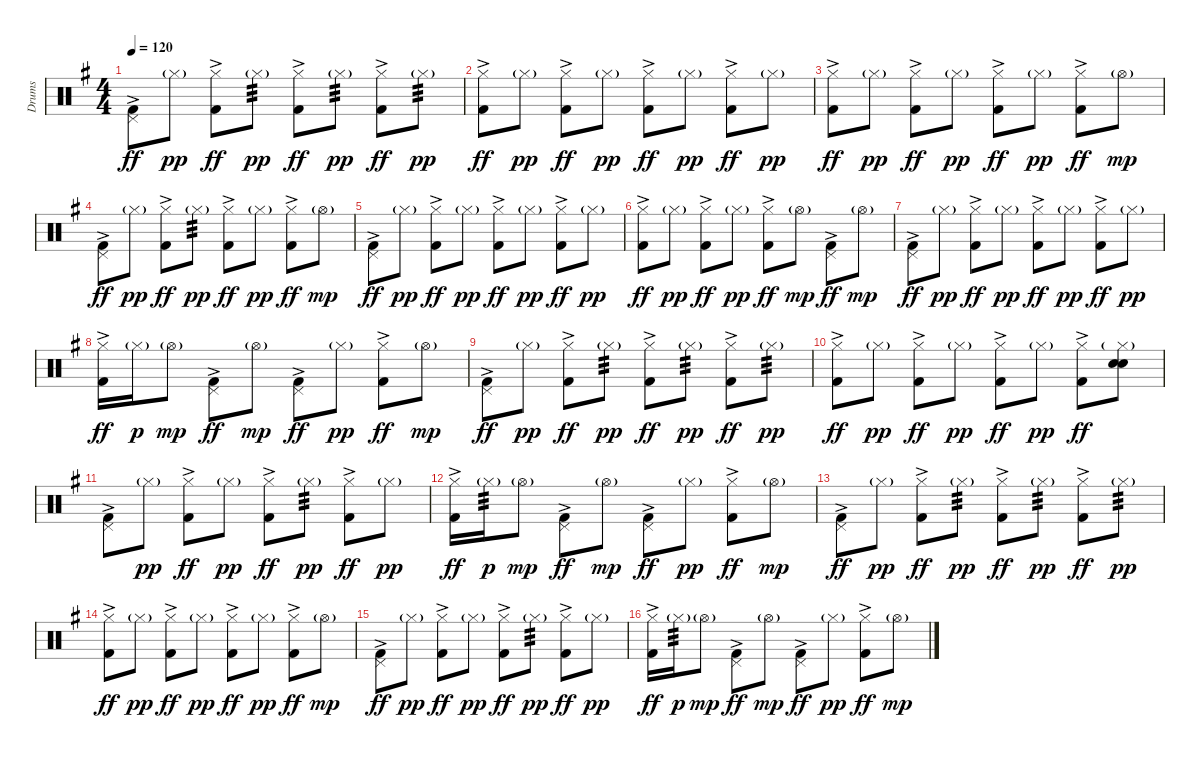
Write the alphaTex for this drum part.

\track ("Drums" "Drums") {instrument percussion}
\staff {score}
\articulation defaults
\ts (4 4)
\tempo 120
\clef neutral
\ks g
("Pedal Hi-Hat (hit)" "Kick (hit) 2"{ac}).8{dy ff} "Hi-Hat (closed)"{g}.8{dy pp} ("Hi-Hat (closed)" "Kick (hit) 2"{ac}).8{dy ff} "Hi-Hat (closed)"{g}.8{tp 3 dy pp} ("Hi-Hat (closed)" "Kick (hit) 2"{ac}).8{dy ff} "Hi-Hat (closed)"{g}.8{tp 3 dy pp} ("Hi-Hat (closed)" "Kick (hit) 2"{ac}).8{dy ff} "Hi-Hat (closed)"{g}.8{tp 3 dy pp} |
("Hi-Hat (closed)" "Kick (hit) 2"{ac}).8{dy ff} "Hi-Hat (closed)"{g}.8{dy pp} ("Hi-Hat (closed)" "Kick (hit) 2"{ac}).8{dy ff} "Hi-Hat (closed)"{g}.8{dy pp} ("Hi-Hat (closed)" "Kick (hit) 2"{ac}).8{dy ff} "Hi-Hat (closed)"{g}.8{dy pp} ("Hi-Hat (closed)" "Kick (hit) 2"{ac}).8{dy ff} "Hi-Hat (closed)"{g}.8{dy pp} |
("Hi-Hat (closed)" "Kick (hit) 2"{ac}).8{dy ff} "Hi-Hat (closed)"{g}.8{dy pp} ("Hi-Hat (closed)" "Kick (hit) 2"{ac}).8{dy ff} "Hi-Hat (closed)"{g}.8{dy pp} ("Hi-Hat (closed)" "Kick (hit) 2"{ac}).8{dy ff} "Hi-Hat (closed)"{g}.8{dy pp} ("Hi-Hat (closed)" "Kick (hit) 2"{ac}).8{dy ff} "Hi-Hat (open)"{g}.8{dy mp} |
("Pedal Hi-Hat (hit)" "Kick (hit) 2"{ac}).8{dy ff} "Hi-Hat (closed)"{g}.8{dy pp} ("Hi-Hat (closed)" "Kick (hit) 2"{ac}).8{dy ff} "Hi-Hat (closed)"{g}.8{tp 3 dy pp} ("Hi-Hat (closed)" "Kick (hit) 2"{ac}).8{dy ff} "Hi-Hat (closed)"{g}.8{dy pp} ("Hi-Hat (closed)" "Kick (hit) 2"{ac}).8{dy ff} "Hi-Hat (open)"{g}.8{dy mp} |
("Pedal Hi-Hat (hit)" "Kick (hit) 2"{ac}).8{dy ff} "Hi-Hat (closed)"{g}.8{dy pp} ("Hi-Hat (closed)" "Kick (hit) 2"{ac}).8{dy ff} "Hi-Hat (closed)"{g}.8{dy pp} ("Hi-Hat (closed)" "Kick (hit) 2"{ac}).8{dy ff} "Hi-Hat (closed)"{g}.8{dy pp} ("Hi-Hat (closed)" "Kick (hit) 2"{ac}).8{dy ff} "Hi-Hat (closed)"{g}.8{dy pp} |
("Hi-Hat (closed)" "Kick (hit) 2"{ac}).8{dy ff} "Hi-Hat (closed)"{g}.8{dy pp} ("Hi-Hat (closed)" "Kick (hit) 2"{ac}).8{dy ff} "Hi-Hat (closed)"{g}.8{dy pp} ("Hi-Hat (closed)" "Kick (hit) 2"{ac}).8{dy ff} "Hi-Hat (open)"{g}.8{dy mp} ("Pedal Hi-Hat (hit)" "Kick (hit) 2"{ac}).8{dy ff} "Hi-Hat (open)"{g}.8{dy mp} |
("Pedal Hi-Hat (hit)" "Kick (hit) 2"{ac}).8{dy ff} "Hi-Hat (closed)"{g}.8{dy pp} ("Hi-Hat (closed)" "Kick (hit) 2"{ac}).8{dy ff} "Hi-Hat (closed)"{g}.8{dy pp} ("Hi-Hat (closed)" "Kick (hit) 2"{ac}).8{dy ff} "Hi-Hat (closed)"{g}.8{dy pp} ("Hi-Hat (closed)" "Kick (hit) 2"{ac}).8{dy ff} "Hi-Hat (closed)"{g}.8{dy pp} |
("Hi-Hat (closed)" "Kick (hit) 2"{ac}).16{dy ff} "Hi-Hat (closed)"{g}.16{dy p} "Hi-Hat (open)"{g}.8{dy mp} ("Pedal Hi-Hat (hit)" "Kick (hit) 2"{ac}).8{dy ff} "Hi-Hat (open)"{g}.8{dy mp} ("Pedal Hi-Hat (hit)" "Kick (hit) 2"{ac}).8{dy ff} "Hi-Hat (closed)"{g}.8{dy pp} ("Hi-Hat (closed)" "Kick (hit) 2"{ac}).8{dy ff} "Hi-Hat (open)"{g}.8{dy mp} |
("Pedal Hi-Hat (hit)" "Kick (hit) 2"{ac}).8{dy ff} "Hi-Hat (closed)"{g}.8{dy pp} ("Hi-Hat (closed)" "Kick (hit) 2"{ac}).8{dy ff} "Hi-Hat (closed)"{g}.8{tp 3 dy pp} ("Hi-Hat (closed)" "Kick (hit) 2"{ac}).8{dy ff} "Hi-Hat (closed)"{g}.8{tp 3 dy pp} ("Hi-Hat (closed)" "Kick (hit) 2"{ac}).8{dy ff} "Hi-Hat (closed)"{g}.8{tp 3 dy pp} |
("Hi-Hat (closed)" "Kick (hit) 2"{ac}).8{dy ff} "Hi-Hat (closed)"{g}.8{dy pp} ("Hi-Hat (closed)" "Kick (hit) 2"{ac}).8{dy ff} "Hi-Hat (closed)"{g}.8{dy pp} ("Hi-Hat (closed)" "Kick (hit) 2"{ac}).8{dy ff} "Hi-Hat (closed)"{g}.8{dy pp} ("Hi-Hat (closed)" "Kick (hit) 2"{ac}).8{dy ff} ("Hi-Hat (closed)"{g} "Electric Snare (hit)" "Snare (hit) 2").8 |
("Pedal Hi-Hat (hit)" "Kick (hit) 2"{ac}).8 "Hi-Hat (closed)"{g}.8{dy pp} ("Hi-Hat (closed)" "Kick (hit) 2"{ac}).8{dy ff} "Hi-Hat (closed)"{g}.8{dy pp} ("Hi-Hat (closed)" "Kick (hit) 2"{ac}).8{dy ff} "Hi-Hat (closed)"{g}.8{tp 3 dy pp} ("Hi-Hat (closed)" "Kick (hit) 2"{ac}).8{dy ff} "Hi-Hat (closed)"{g}.8{dy pp} |
("Hi-Hat (closed)" "Kick (hit) 2"{ac}).16{dy ff} "Hi-Hat (closed)"{g}.16{tp 3 dy p} "Hi-Hat (open)"{g}.8{dy mp} ("Pedal Hi-Hat (hit)" "Kick (hit) 2"{ac}).8{dy ff} "Hi-Hat (open)"{g}.8{dy mp} ("Pedal Hi-Hat (hit)" "Kick (hit) 2"{ac}).8{dy ff} "Hi-Hat (closed)"{g}.8{dy pp} ("Hi-Hat (closed)" "Kick (hit) 2"{ac}).8{dy ff} "Hi-Hat (open)"{g}.8{dy mp} |
("Pedal Hi-Hat (hit)" "Kick (hit) 2"{ac}).8{dy ff} "Hi-Hat (closed)"{g}.8{dy pp} ("Hi-Hat (closed)" "Kick (hit) 2"{ac}).8{dy ff} "Hi-Hat (closed)"{g}.8{tp 3 dy pp} ("Hi-Hat (closed)" "Kick (hit) 2"{ac}).8{dy ff} "Hi-Hat (closed)"{g}.8{tp 3 dy pp} ("Hi-Hat (closed)" "Kick (hit) 2"{ac}).8{dy ff} "Hi-Hat (closed)"{g}.8{tp 3 dy pp} |
("Hi-Hat (closed)" "Kick (hit) 2"{ac}).8{dy ff} "Hi-Hat (closed)"{g}.8{dy pp} ("Hi-Hat (closed)" "Kick (hit) 2"{ac}).8{dy ff} "Hi-Hat (closed)"{g}.8{dy pp} ("Hi-Hat (closed)" "Kick (hit) 2"{ac}).8{dy ff} "Hi-Hat (closed)"{g}.8{dy pp} ("Hi-Hat (closed)" "Kick (hit) 2"{ac}).8{dy ff} "Hi-Hat (open)"{g}.8{dy mp} |
("Pedal Hi-Hat (hit)" "Kick (hit) 2"{ac}).8{dy ff} "Hi-Hat (closed)"{g}.8{dy pp} ("Hi-Hat (closed)" "Kick (hit) 2"{ac}).8{dy ff} "Hi-Hat (closed)"{g}.8{dy pp} ("Hi-Hat (closed)" "Kick (hit) 2"{ac}).8{dy ff} "Hi-Hat (closed)"{g}.8{tp 3 dy pp} ("Hi-Hat (closed)" "Kick (hit) 2"{ac}).8{dy ff} "Hi-Hat (closed)"{g}.8{dy pp} |
("Hi-Hat (closed)" "Kick (hit) 2"{ac}).16{dy ff} "Hi-Hat (closed)"{g}.16{tp 3 dy p} "Hi-Hat (open)"{g}.8{dy mp} ("Pedal Hi-Hat (hit)" "Kick (hit) 2"{ac}).8{dy ff} "Hi-Hat (open)"{g}.8{dy mp} ("Pedal Hi-Hat (hit)" "Kick (hit) 2"{ac}).8{dy ff} "Hi-Hat (closed)"{g}.8{dy pp} ("Hi-Hat (closed)" "Kick (hit) 2"{ac}).8{dy ff} "Hi-Hat (open)"{g}.8{dy mp}
